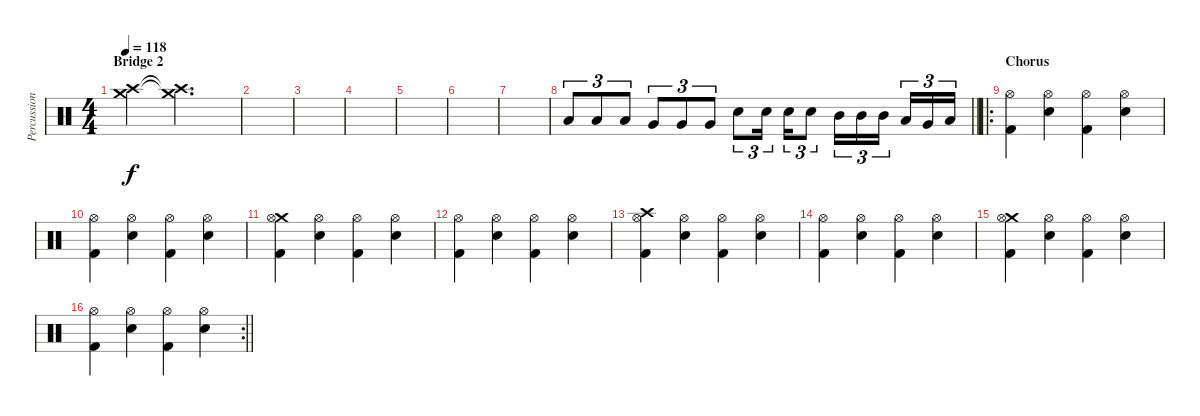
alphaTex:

\track ("Percussion" "Percussion") {instrument percussion}
\staff {score}
\articulation defaults
\ts (4 4)
\section ("" "Bridge 2")
\tempo 118
\clef neutral
\ks c
("Crash high (hit)" "Crash medium (hit)").4{dy f} ("Crash high (hit)"{t} "Crash medium (hit)"{t}).2{d} |
|
|
|
|
|
|
\barLineRight lightlight "Low Tom (hit)".8{tu (3 2)} "Low Tom (hit)".8{tu (3 2)} "Low Tom (hit)".8{tu (3 2)} "Very Low Tom (hit)".8{tu (3 2)} "Very Low Tom (hit)".8{tu (3 2)} "Very Low Tom (hit)".8{tu (3 2)} "Electric Snare (hit)".8{tu (3 2)} "Electric Snare (hit)".16{tu (3 2) beam splitsecondary} "Electric Snare (hit)".16{tu (3 2)} "Electric Snare (hit)".8{tu (3 2)} "Mid Tom (hit)".16{tu (3 2)} "Mid Tom (hit)".16{tu (3 2)} "Mid Tom (hit)".16{tu (3 2) beam splitsecondary} "Low Tom (hit)".16{tu (3 2)} "Very Low Tom (hit)".16{tu (3 2)} "Low Floor Tom (hit)".16{tu (3 2)}
|
\ro
\section ("" "Chorus")
("Hi-Hat (open)" "Kick (hit) 2").4 ("Hi-Hat (open)" "Electric Snare (hit)").4 ("Hi-Hat (open)" "Kick (hit) 2").4 ("Hi-Hat (open)" "Electric Snare (hit)").4 |
("Hi-Hat (open)" "Kick (hit) 2").4 ("Hi-Hat (open)" "Electric Snare (hit)").4 ("Hi-Hat (open)" "Kick (hit) 2").4 ("Hi-Hat (open)" "Electric Snare (hit)").4 |
("Crash medium (hit)" "Hi-Hat (open)" "Kick (hit) 2").4 ("Hi-Hat (open)" "Electric Snare (hit)").4 ("Hi-Hat (open)" "Kick (hit) 2").4 ("Hi-Hat (open)" "Electric Snare (hit)").4 |
("Hi-Hat (open)" "Kick (hit) 2").4 ("Hi-Hat (open)" "Electric Snare (hit)").4 ("Hi-Hat (open)" "Kick (hit) 2").4 ("Hi-Hat (open)" "Electric Snare (hit)").4 |
("Crash high (hit)" "Hi-Hat (open)" "Kick (hit) 2").4 ("Hi-Hat (open)" "Electric Snare (hit)").4 ("Hi-Hat (open)" "Kick (hit) 2").4 ("Hi-Hat (open)" "Electric Snare (hit)").4 |
("Hi-Hat (open)" "Kick (hit) 2").4 ("Hi-Hat (open)" "Electric Snare (hit)").4 ("Hi-Hat (open)" "Kick (hit) 2").4 ("Hi-Hat (open)" "Electric Snare (hit)").4 |
("Crash medium (hit)" "Hi-Hat (open)" "Kick (hit) 2").4 ("Hi-Hat (open)" "Electric Snare (hit)").4 ("Hi-Hat (open)" "Kick (hit) 2").4 ("Hi-Hat (open)" "Electric Snare (hit)").4 |
\rc 2
\barLineRight lightlight
("Hi-Hat (open)" "Kick (hit) 2").4 ("Hi-Hat (open)" "Electric Snare (hit)").4 ("Hi-Hat (open)" "Kick (hit) 2").4 ("Hi-Hat (open)" "Electric Snare (hit)").4
